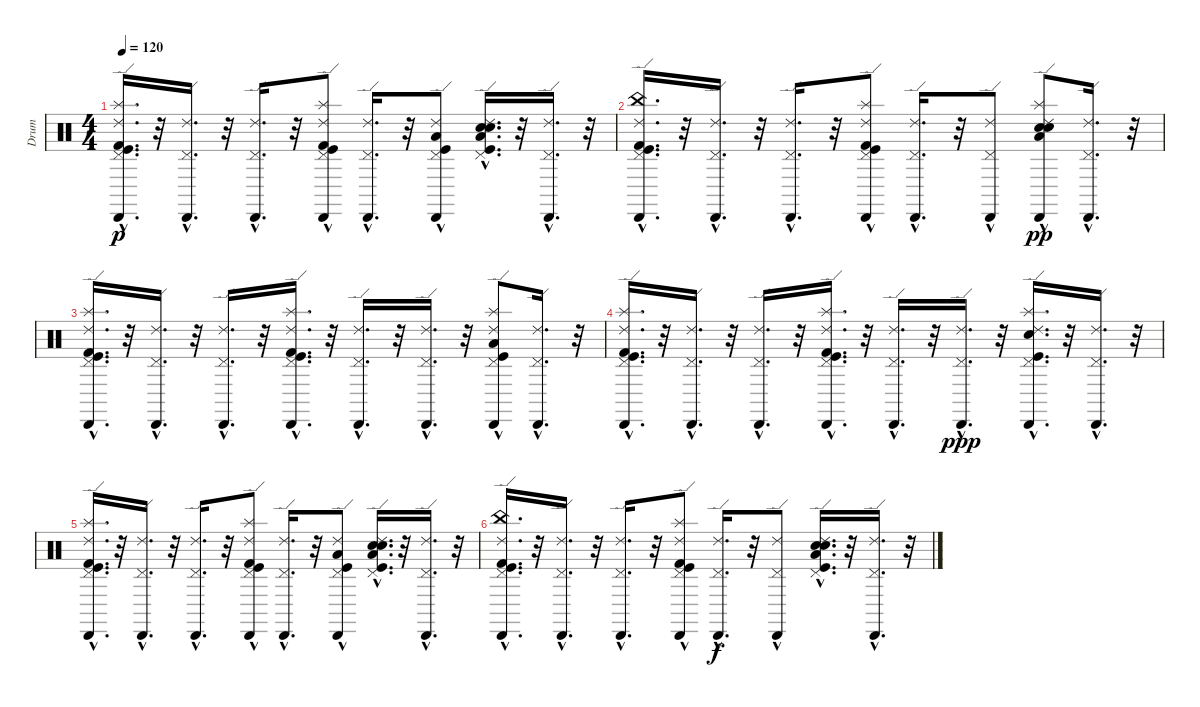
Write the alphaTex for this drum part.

\track ("Drum" "Drum") {instrument percussion}
\staff {score}
\articulation defaults
\ts (4 4)
\tempo 120
\clef neutral
\ks c
("Ride (edge) 2"{hac} "Kick (hit)"{hac} "Pedal Hi-Hat (hit)"{hac} "Cabasa (hit)"{hac} "Kick (hit) 2"{hac} "Splash (hit)"{hac}).16{d dy p} r.32 ("Ride (edge) 2"{hac} "Pedal Hi-Hat (hit)"{hac} "Cabasa (hit)"{hac}).16{d} r.32 ("Ride (edge) 2"{hac} "Pedal Hi-Hat (hit)"{hac} "Cabasa (hit)"{hac}).16{d} r.32 ("Ride (edge) 2"{hac} "Kick (hit)"{hac} "Pedal Hi-Hat (hit)"{hac} "Cabasa (hit)"{hac} "Kick (hit) 2"{hac} "Splash (hit)"{hac}).8 ("Ride (edge) 2"{hac} "Pedal Hi-Hat (hit)"{hac} "Cabasa (hit)"{hac}).16{d} r.32 ("Low Tom (hit)"{hac} "Kick (hit)"{hac} "Ride (edge) 2"{hac} "Pedal Hi-Hat (hit)"{hac} "Cabasa (hit)"{hac}).8 ("Electric Snare (hit)"{hac} "Snare (hit) 2"{hac} "Ride (edge) 2"{hac} "Low Tom (hit)"{hac} "Kick (hit)"{hac} "Pedal Hi-Hat (hit)"{hac}).16{d} r.32 ("Ride (edge) 2"{hac} "Pedal Hi-Hat (hit)"{hac} "Cabasa (hit)"{hac}).16{d} r.32 |
("Kick (hit) 2"{hac} "Cabasa (hit)"{hac} "Ride (edge) 2"{hac} "Kick (hit)"{hac} "Pedal Hi-Hat (hit)"{hac} "China (hit)"{hac}).16{d} r.32 ("Cabasa (hit)"{hac} "Ride (edge) 2"{hac} "Pedal Hi-Hat (hit)"{hac}).16{d} r.32 ("Cabasa (hit)"{hac} "Ride (edge) 2"{hac} "Pedal Hi-Hat (hit)"{hac}).16{d} r.32 ("Splash (hit)"{hac} "Kick (hit) 2"{hac} "Cabasa (hit)"{hac} "Ride (edge) 2"{hac} "Kick (hit)"{hac} "Pedal Hi-Hat (hit)"{hac}).8 ("Cabasa (hit)"{hac} "Ride (edge) 2"{hac} "Pedal Hi-Hat (hit)"{hac}).16{d} r.32 ("Cabasa (hit)"{hac} "Ride (edge) 2"{hac} "Pedal Hi-Hat (hit)"{hac}).8 ("Splash (hit)"{hac} "Cabasa (hit)"{hac} "Electric Snare (hit)" "Snare (hit) 2" "Ride (edge) 2"{hac} "Low Tom (hit)"{hac}).8{dy pp} ("Cabasa (hit)"{hac} "Ride (edge) 2"{hac} "Pedal Hi-Hat (hit)"{hac}).16{d} r.32 |
("Splash (hit)"{hac} "Kick (hit) 2"{hac} "Cabasa (hit)"{hac} "Pedal Hi-Hat (hit)"{hac} "Kick (hit)"{hac} "Ride (edge) 2"{hac}).16{d} r.32 ("Cabasa (hit)"{hac} "Pedal Hi-Hat (hit)"{hac} "Ride (edge) 2"{hac}).16{d} r.32 ("Cabasa (hit)"{hac} "Pedal Hi-Hat (hit)"{hac} "Ride (edge) 2"{hac}).16{d} r.32 ("Splash (hit)"{hac} "Kick (hit) 2"{hac} "Cabasa (hit)"{hac} "Pedal Hi-Hat (hit)"{hac} "Kick (hit)"{hac} "Ride (edge) 2"{hac}).16{d} r.32 ("Cabasa (hit)"{hac} "Pedal Hi-Hat (hit)"{hac} "Ride (edge) 2"{hac}).16{d} r.32 ("Cabasa (hit)"{hac} "Pedal Hi-Hat (hit)"{hac} "Ride (edge) 2"{hac}).16{d} r.32 ("Splash (hit)"{hac} "Cabasa (hit)"{hac} "Pedal Hi-Hat (hit)"{hac} "Kick (hit)"{hac} "Low Tom (hit)" "Ride (edge) 2"{hac}).8 ("Cabasa (hit)"{hac} "Pedal Hi-Hat (hit)"{hac} "Ride (edge) 2"{hac}).16{d} r.32 |
("Splash (hit)"{hac} "Kick (hit) 2"{hac} "Cabasa (hit)"{hac} "Pedal Hi-Hat (hit)"{hac} "Kick (hit)"{hac} "Ride (edge) 2"{hac}).16{d} r.32 ("Pedal Hi-Hat (hit)"{hac} "Cabasa (hit)"{hac} "Ride (edge) 2"{hac}).16{d} r.32 ("Pedal Hi-Hat (hit)"{hac} "Ride (edge) 2"{hac} "Cabasa (hit)"{hac}).16{d} r.32 ("Kick (hit)"{hac} "Cabasa (hit)"{hac} "Pedal Hi-Hat (hit)"{hac} "Splash (hit)"{hac} "Kick (hit) 2"{hac} "Ride (edge) 2"{hac}).16{d} r.32 ("Ride (edge) 2"{hac} "Cabasa (hit)"{hac} "Pedal Hi-Hat (hit)"{hac}).16{d} r.32 ("Pedal Hi-Hat (hit)"{hac} "Cabasa (hit)"{hac} "Ride (edge) 2"{hac}).16{d dy ppp} r.32 ("Kick (hit)"{hac} "Ride (edge) 2"{hac} "Splash (hit)"{hac} "Cabasa (hit)"{hac} "Electric Snare (hit)"{hac} "Pedal Hi-Hat (hit)"{hac}).16{d} r.32 ("Pedal Hi-Hat (hit)"{hac} "Ride (edge) 2"{hac} "Cabasa (hit)"{hac}).16{d} r.32 |
("Ride (edge) 2"{hac} "Kick (hit)"{hac} "Pedal Hi-Hat (hit)"{hac} "Cabasa (hit)"{hac} "Kick (hit) 2"{hac} "Splash (hit)"{hac}).16{d} r.32 ("Ride (edge) 2"{hac} "Pedal Hi-Hat (hit)"{hac} "Cabasa (hit)"{hac}).16{d} r.32 ("Ride (edge) 2"{hac} "Pedal Hi-Hat (hit)"{hac} "Cabasa (hit)"{hac}).16{d} r.32 ("Ride (edge) 2"{hac} "Kick (hit)"{hac} "Pedal Hi-Hat (hit)"{hac} "Cabasa (hit)"{hac} "Kick (hit) 2"{hac} "Splash (hit)"{hac}).8 ("Ride (edge) 2"{hac} "Pedal Hi-Hat (hit)"{hac} "Cabasa (hit)"{hac}).16{d} r.32 ("Low Tom (hit)"{hac} "Kick (hit)"{hac} "Ride (edge) 2"{hac} "Pedal Hi-Hat (hit)"{hac} "Cabasa (hit)"{hac}).8 ("Electric Snare (hit)"{hac} "Snare (hit) 2"{hac} "Ride (edge) 2"{hac} "Low Tom (hit)"{hac} "Kick (hit)"{hac} "Pedal Hi-Hat (hit)"{hac}).16{d} r.32 ("Ride (edge) 2"{hac} "Pedal Hi-Hat (hit)"{hac} "Cabasa (hit)"{hac}).16{d} r.32 |
("China (hit)"{hac} "Pedal Hi-Hat (hit)"{hac} "Kick (hit)"{hac} "Ride (edge) 2"{hac} "Cabasa (hit)"{hac} "Kick (hit) 2"{hac}).16{d} r.32 ("Pedal Hi-Hat (hit)"{hac} "Ride (edge) 2"{hac} "Cabasa (hit)"{hac}).16{d} r.32 ("Pedal Hi-Hat (hit)"{hac} "Ride (edge) 2"{hac} "Cabasa (hit)"{hac}).16{d} r.32 ("Pedal Hi-Hat (hit)"{hac} "Kick (hit)"{hac} "Ride (edge) 2"{hac} "Cabasa (hit)"{hac} "Kick (hit) 2"{hac} "Splash (hit)"{hac}).8 ("Pedal Hi-Hat (hit)"{hac} "Ride (edge) 2"{hac} "Cabasa (hit)"{hac}).16{d dy f} r.32 ("Pedal Hi-Hat (hit)"{hac} "Ride (edge) 2"{hac} "Cabasa (hit)"{hac}).8 ("Pedal Hi-Hat (hit)"{hac} "Kick (hit)"{hac} "Low Tom (hit)"{hac} "Ride (edge) 2"{hac} "Snare (hit) 2"{hac} "Electric Snare (hit)"{hac}).16{d} r.32 ("Pedal Hi-Hat (hit)"{hac} "Ride (edge) 2"{hac} "Cabasa (hit)"{hac}).16{d} r.32
